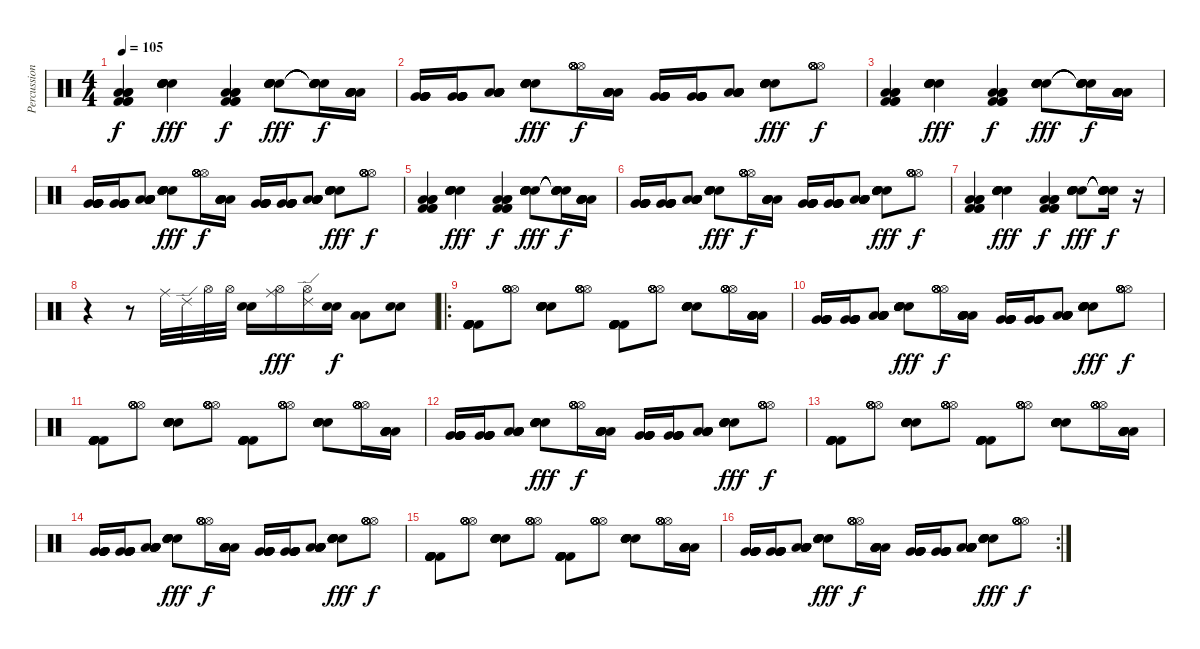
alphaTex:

\track ("Percussion" "Percussion") {instrument percussion}
\staff {score}
\articulation defaults
\ts (4 4)
\tempo 105
\clef neutral
\ks c
("Kick (hit) 2" "Low Floor Tom (hit)" "Kick (hit) 2" "Low Floor Tom (hit)" "Kick (hit) 2" "Low Floor Tom (hit)").4{dy f} ("Snare (hit) 2" "Snare (hit) 2" "Snare (hit) 2" "Snare (hit) 2" "Snare (hit) 2" "Snare (hit) 2").4{dy fff} ("Kick (hit) 2" "Low Floor Tom (hit)" "Kick (hit) 2" "Low Floor Tom (hit)" "Kick (hit) 2" "Low Floor Tom (hit)").4{dy f} ("Snare (hit) 2" "Snare (hit) 2" "Snare (hit) 2" "Snare (hit) 2" "Snare (hit) 2" "Snare (hit) 2").8{dy fff} ("Snare (hit)"{t} "Snare (hit)"{t} "Snare (hit)"{t} "Snare (hit)"{t} "Snare (hit)"{t} "Snare (hit)"{t}).16{dy f} ("Low Tom (hit)" "Low Tom (hit)" "Low Tom (hit)" "Low Tom (hit)" "Low Tom (hit)" "Low Tom (hit)").16 |
("Very Low Tom (hit)" "Very Low Tom (hit)" "Very Low Tom (hit)" "Very Low Tom (hit)" "Very Low Tom (hit)" "Very Low Tom (hit)").16 ("Very Low Tom (hit)" "Very Low Tom (hit)" "Very Low Tom (hit)" "Very Low Tom (hit)" "Very Low Tom (hit)" "Very Low Tom (hit)").16 ("Low Floor Tom (hit)" "Low Floor Tom (hit)" "Low Floor Tom (hit)" "Low Floor Tom (hit)" "Low Floor Tom (hit)" "Low Floor Tom (hit)").8 ("Snare (hit) 2" "Snare (hit) 2" "Snare (hit) 2" "Snare (hit) 2" "Snare (hit) 2" "Snare (hit) 2").8{dy fff} ("Hi-Hat (open)" "Hi-Hat (open)" "Hi-Hat (open)" "Hi-Hat (open)" "Hi-Hat (open)" "Hi-Hat (open)").16{dy f} ("Low Tom (hit)" "Low Tom (hit)" "Low Tom (hit)" "Low Tom (hit)" "Low Tom (hit)" "Low Tom (hit)").16 ("Very Low Tom (hit)" "Very Low Tom (hit)" "Very Low Tom (hit)" "Very Low Tom (hit)" "Very Low Tom (hit)" "Very Low Tom (hit)").16 ("Very Low Tom (hit)" "Very Low Tom (hit)" "Very Low Tom (hit)" "Very Low Tom (hit)" "Very Low Tom (hit)" "Very Low Tom (hit)").16 ("Low Floor Tom (hit)" "Low Floor Tom (hit)" "Low Floor Tom (hit)" "Low Floor Tom (hit)" "Low Floor Tom (hit)" "Low Floor Tom (hit)").8 ("Snare (hit) 2" "Snare (hit) 2" "Snare (hit) 2" "Snare (hit) 2" "Snare (hit) 2" "Snare (hit) 2").8{dy fff} ("Hi-Hat (open)" "Hi-Hat (open)" "Hi-Hat (open)" "Hi-Hat (open)" "Hi-Hat (open)" "Hi-Hat (open)").8{dy f} |
("Kick (hit) 2" "Low Floor Tom (hit)" "Kick (hit) 2" "Low Floor Tom (hit)" "Kick (hit) 2" "Low Floor Tom (hit)").4 ("Snare (hit) 2" "Snare (hit) 2" "Snare (hit) 2" "Snare (hit) 2" "Snare (hit) 2" "Snare (hit) 2").4{dy fff} ("Kick (hit) 2" "Low Floor Tom (hit)" "Kick (hit) 2" "Low Floor Tom (hit)" "Kick (hit) 2" "Low Floor Tom (hit)").4{dy f} ("Snare (hit) 2" "Snare (hit) 2" "Snare (hit) 2" "Snare (hit) 2" "Snare (hit) 2" "Snare (hit) 2").8{dy fff} ("Snare (hit)"{t} "Snare (hit)"{t} "Snare (hit)"{t} "Snare (hit)"{t} "Snare (hit)"{t} "Snare (hit)"{t}).16{dy f} ("Low Tom (hit)" "Low Tom (hit)" "Low Tom (hit)" "Low Tom (hit)" "Low Tom (hit)" "Low Tom (hit)").16 |
("Very Low Tom (hit)" "Very Low Tom (hit)" "Very Low Tom (hit)" "Very Low Tom (hit)" "Very Low Tom (hit)" "Very Low Tom (hit)").16 ("Very Low Tom (hit)" "Very Low Tom (hit)" "Very Low Tom (hit)" "Very Low Tom (hit)" "Very Low Tom (hit)" "Very Low Tom (hit)").16 ("Low Floor Tom (hit)" "Low Floor Tom (hit)" "Low Floor Tom (hit)" "Low Floor Tom (hit)" "Low Floor Tom (hit)" "Low Floor Tom (hit)").8 ("Snare (hit) 2" "Snare (hit) 2" "Snare (hit) 2" "Snare (hit) 2" "Snare (hit) 2" "Snare (hit) 2").8{dy fff} ("Hi-Hat (open)" "Hi-Hat (open)" "Hi-Hat (open)" "Hi-Hat (open)" "Hi-Hat (open)" "Hi-Hat (open)").16{dy f} ("Low Tom (hit)" "Low Tom (hit)" "Low Tom (hit)" "Low Tom (hit)" "Low Tom (hit)" "Low Tom (hit)").16 ("Very Low Tom (hit)" "Very Low Tom (hit)" "Very Low Tom (hit)" "Very Low Tom (hit)" "Very Low Tom (hit)" "Very Low Tom (hit)").16 ("Very Low Tom (hit)" "Very Low Tom (hit)" "Very Low Tom (hit)" "Very Low Tom (hit)" "Very Low Tom (hit)" "Very Low Tom (hit)").16 ("Low Floor Tom (hit)" "Low Floor Tom (hit)" "Low Floor Tom (hit)" "Low Floor Tom (hit)" "Low Floor Tom (hit)" "Low Floor Tom (hit)").8 ("Snare (hit) 2" "Snare (hit) 2" "Snare (hit) 2" "Snare (hit) 2" "Snare (hit) 2" "Snare (hit) 2").8{dy fff} ("Hi-Hat (open)" "Hi-Hat (open)" "Hi-Hat (open)" "Hi-Hat (open)" "Hi-Hat (open)" "Hi-Hat (open)").8{dy f} |
("Kick (hit) 2" "Low Floor Tom (hit)" "Kick (hit) 2" "Low Floor Tom (hit)" "Kick (hit) 2" "Low Floor Tom (hit)").4 ("Snare (hit) 2" "Snare (hit) 2" "Snare (hit) 2" "Snare (hit) 2" "Snare (hit) 2" "Snare (hit) 2").4{dy fff} ("Kick (hit) 2" "Low Floor Tom (hit)" "Kick (hit) 2" "Low Floor Tom (hit)" "Kick (hit) 2" "Low Floor Tom (hit)").4{dy f} ("Snare (hit) 2" "Snare (hit) 2" "Snare (hit) 2" "Snare (hit) 2" "Snare (hit) 2" "Snare (hit) 2").8{dy fff} ("Snare (hit)"{t} "Snare (hit)"{t} "Snare (hit)"{t} "Snare (hit)"{t} "Snare (hit)"{t} "Snare (hit)"{t}).16{dy f} ("Low Tom (hit)" "Low Tom (hit)" "Low Tom (hit)" "Low Tom (hit)" "Low Tom (hit)" "Low Tom (hit)").16 |
("Very Low Tom (hit)" "Very Low Tom (hit)" "Very Low Tom (hit)" "Very Low Tom (hit)" "Very Low Tom (hit)" "Very Low Tom (hit)").16 ("Very Low Tom (hit)" "Very Low Tom (hit)" "Very Low Tom (hit)" "Very Low Tom (hit)" "Very Low Tom (hit)" "Very Low Tom (hit)").16 ("Low Floor Tom (hit)" "Low Floor Tom (hit)" "Low Floor Tom (hit)" "Low Floor Tom (hit)" "Low Floor Tom (hit)" "Low Floor Tom (hit)").8 ("Snare (hit) 2" "Snare (hit) 2" "Snare (hit) 2" "Snare (hit) 2" "Snare (hit) 2" "Snare (hit) 2").8{dy fff} ("Hi-Hat (open)" "Hi-Hat (open)" "Hi-Hat (open)" "Hi-Hat (open)" "Hi-Hat (open)" "Hi-Hat (open)").16{dy f} ("Low Tom (hit)" "Low Tom (hit)" "Low Tom (hit)" "Low Tom (hit)" "Low Tom (hit)" "Low Tom (hit)").16 ("Very Low Tom (hit)" "Very Low Tom (hit)" "Very Low Tom (hit)" "Very Low Tom (hit)" "Very Low Tom (hit)" "Very Low Tom (hit)").16 ("Very Low Tom (hit)" "Very Low Tom (hit)" "Very Low Tom (hit)" "Very Low Tom (hit)" "Very Low Tom (hit)" "Very Low Tom (hit)").16 ("Low Floor Tom (hit)" "Low Floor Tom (hit)" "Low Floor Tom (hit)" "Low Floor Tom (hit)" "Low Floor Tom (hit)" "Low Floor Tom (hit)").8 ("Snare (hit) 2" "Snare (hit) 2" "Snare (hit) 2" "Snare (hit) 2" "Snare (hit) 2" "Snare (hit) 2").8{dy fff} ("Hi-Hat (open)" "Hi-Hat (open)" "Hi-Hat (open)" "Hi-Hat (open)" "Hi-Hat (open)" "Hi-Hat (open)").8{dy f} |
("Kick (hit) 2" "Low Floor Tom (hit)" "Kick (hit) 2" "Low Floor Tom (hit)" "Kick (hit) 2" "Low Floor Tom (hit)").4 ("Snare (hit) 2" "Snare (hit) 2" "Snare (hit) 2" "Snare (hit) 2" "Snare (hit) 2" "Snare (hit) 2").4{dy fff} ("Kick (hit) 2" "Low Floor Tom (hit)" "Kick (hit) 2" "Low Floor Tom (hit)" "Kick (hit) 2" "Low Floor Tom (hit)").4{dy f} ("Snare (hit) 2" "Snare (hit) 2" "Snare (hit) 2" "Snare (hit) 2" "Snare (hit) 2" "Snare (hit) 2").8{dy fff} ("Snare (hit)"{t} "Snare (hit)"{t} "Snare (hit)"{t} "Snare (hit)"{t} "Snare (hit)"{t} "Snare (hit)"{t}).16{dy f} r.16 |
r.4 r.8 "Ride (middle)".32 "Ride (edge) 2".32 "Hi-Hat (open)".32 "Hi-Hat (open)".32 ("Electric Snare (hit)" "Electric Snare (hit)").16 ("Ride (middle)" "Hi-Hat (open)").16{dy fff} ("Ride (edge) 2" "Hi-Hat (open)").16 ("Electric Snare (hit)" "Electric Snare (hit)").16{dy f} ("Low Tom (hit)" "Low Tom (hit)").8 ("Electric Snare (hit)" "Electric Snare (hit)").8 |
\ro
("Kick (hit) 2" "Kick (hit) 2" "Kick (hit) 2" "Kick (hit) 2" "Kick (hit) 2" "Kick (hit) 2").8 ("Hi-Hat (open)" "Hi-Hat (open)" "Hi-Hat (open)" "Hi-Hat (open)" "Hi-Hat (open)" "Hi-Hat (open)").8 ("Snare (hit) 2" "Snare (hit) 2" "Snare (hit) 2" "Snare (hit) 2" "Snare (hit) 2" "Snare (hit) 2").8 ("Hi-Hat (open)" "Hi-Hat (open)" "Hi-Hat (open)" "Hi-Hat (open)" "Hi-Hat (open)" "Hi-Hat (open)").8 ("Kick (hit) 2" "Kick (hit) 2" "Kick (hit) 2" "Kick (hit) 2" "Kick (hit) 2" "Kick (hit) 2").8 ("Hi-Hat (open)" "Hi-Hat (open)" "Hi-Hat (open)" "Hi-Hat (open)" "Hi-Hat (open)" "Hi-Hat (open)").8 ("Snare (hit) 2" "Snare (hit) 2" "Snare (hit) 2" "Snare (hit) 2" "Snare (hit) 2" "Snare (hit) 2").8 ("Hi-Hat (open)" "Hi-Hat (open)" "Hi-Hat (open)" "Hi-Hat (open)" "Hi-Hat (open)" "Hi-Hat (open)").16 ("Low Tom (hit)" "Low Tom (hit)" "Low Tom (hit)" "Low Tom (hit)" "Low Tom (hit)" "Low Tom (hit)").16 |
("Very Low Tom (hit)" "Very Low Tom (hit)" "Very Low Tom (hit)" "Very Low Tom (hit)" "Very Low Tom (hit)" "Very Low Tom (hit)").16 ("Very Low Tom (hit)" "Very Low Tom (hit)" "Very Low Tom (hit)" "Very Low Tom (hit)" "Very Low Tom (hit)" "Very Low Tom (hit)").16 ("Low Floor Tom (hit)" "Low Floor Tom (hit)" "Low Floor Tom (hit)" "Low Floor Tom (hit)" "Low Floor Tom (hit)" "Low Floor Tom (hit)").8 ("Snare (hit) 2" "Snare (hit) 2" "Snare (hit) 2" "Snare (hit) 2" "Snare (hit) 2" "Snare (hit) 2").8{dy fff} ("Hi-Hat (open)" "Hi-Hat (open)" "Hi-Hat (open)" "Hi-Hat (open)" "Hi-Hat (open)" "Hi-Hat (open)").16{dy f} ("Low Tom (hit)" "Low Tom (hit)" "Low Tom (hit)" "Low Tom (hit)" "Low Tom (hit)" "Low Tom (hit)").16 ("Very Low Tom (hit)" "Very Low Tom (hit)" "Very Low Tom (hit)" "Very Low Tom (hit)" "Very Low Tom (hit)" "Very Low Tom (hit)").16 ("Very Low Tom (hit)" "Very Low Tom (hit)" "Very Low Tom (hit)" "Very Low Tom (hit)" "Very Low Tom (hit)" "Very Low Tom (hit)").16 ("Low Floor Tom (hit)" "Low Floor Tom (hit)" "Low Floor Tom (hit)" "Low Floor Tom (hit)" "Low Floor Tom (hit)" "Low Floor Tom (hit)").8 ("Snare (hit) 2" "Snare (hit) 2" "Snare (hit) 2" "Snare (hit) 2" "Snare (hit) 2" "Snare (hit) 2").8{dy fff} ("Hi-Hat (open)" "Hi-Hat (open)" "Hi-Hat (open)" "Hi-Hat (open)" "Hi-Hat (open)" "Hi-Hat (open)").8{dy f} |
("Kick (hit) 2" "Kick (hit) 2" "Kick (hit) 2" "Kick (hit) 2" "Kick (hit) 2" "Kick (hit) 2").8 ("Hi-Hat (open)" "Hi-Hat (open)" "Hi-Hat (open)" "Hi-Hat (open)" "Hi-Hat (open)" "Hi-Hat (open)").8 ("Snare (hit) 2" "Snare (hit) 2" "Snare (hit) 2" "Snare (hit) 2" "Snare (hit) 2" "Snare (hit) 2").8 ("Hi-Hat (open)" "Hi-Hat (open)" "Hi-Hat (open)" "Hi-Hat (open)" "Hi-Hat (open)" "Hi-Hat (open)").8 ("Kick (hit) 2" "Kick (hit) 2" "Kick (hit) 2" "Kick (hit) 2" "Kick (hit) 2" "Kick (hit) 2").8 ("Hi-Hat (open)" "Hi-Hat (open)" "Hi-Hat (open)" "Hi-Hat (open)" "Hi-Hat (open)" "Hi-Hat (open)").8 ("Snare (hit) 2" "Snare (hit) 2" "Snare (hit) 2" "Snare (hit) 2" "Snare (hit) 2" "Snare (hit) 2").8 ("Hi-Hat (open)" "Hi-Hat (open)" "Hi-Hat (open)" "Hi-Hat (open)" "Hi-Hat (open)" "Hi-Hat (open)").16 ("Low Tom (hit)" "Low Tom (hit)" "Low Tom (hit)" "Low Tom (hit)" "Low Tom (hit)" "Low Tom (hit)").16 |
("Very Low Tom (hit)" "Very Low Tom (hit)" "Very Low Tom (hit)" "Very Low Tom (hit)" "Very Low Tom (hit)" "Very Low Tom (hit)").16 ("Very Low Tom (hit)" "Very Low Tom (hit)" "Very Low Tom (hit)" "Very Low Tom (hit)" "Very Low Tom (hit)" "Very Low Tom (hit)").16 ("Low Floor Tom (hit)" "Low Floor Tom (hit)" "Low Floor Tom (hit)" "Low Floor Tom (hit)" "Low Floor Tom (hit)" "Low Floor Tom (hit)").8 ("Snare (hit) 2" "Snare (hit) 2" "Snare (hit) 2" "Snare (hit) 2" "Snare (hit) 2" "Snare (hit) 2").8{dy fff} ("Hi-Hat (open)" "Hi-Hat (open)" "Hi-Hat (open)" "Hi-Hat (open)" "Hi-Hat (open)" "Hi-Hat (open)").16{dy f} ("Low Tom (hit)" "Low Tom (hit)" "Low Tom (hit)" "Low Tom (hit)" "Low Tom (hit)" "Low Tom (hit)").16 ("Very Low Tom (hit)" "Very Low Tom (hit)" "Very Low Tom (hit)" "Very Low Tom (hit)" "Very Low Tom (hit)" "Very Low Tom (hit)").16 ("Very Low Tom (hit)" "Very Low Tom (hit)" "Very Low Tom (hit)" "Very Low Tom (hit)" "Very Low Tom (hit)" "Very Low Tom (hit)").16 ("Low Floor Tom (hit)" "Low Floor Tom (hit)" "Low Floor Tom (hit)" "Low Floor Tom (hit)" "Low Floor Tom (hit)" "Low Floor Tom (hit)").8 ("Snare (hit) 2" "Snare (hit) 2" "Snare (hit) 2" "Snare (hit) 2" "Snare (hit) 2" "Snare (hit) 2").8{dy fff} ("Hi-Hat (open)" "Hi-Hat (open)" "Hi-Hat (open)" "Hi-Hat (open)" "Hi-Hat (open)" "Hi-Hat (open)").8{dy f} |
("Kick (hit) 2" "Kick (hit) 2" "Kick (hit) 2" "Kick (hit) 2" "Kick (hit) 2" "Kick (hit) 2").8 ("Hi-Hat (open)" "Hi-Hat (open)" "Hi-Hat (open)" "Hi-Hat (open)" "Hi-Hat (open)" "Hi-Hat (open)").8 ("Snare (hit) 2" "Snare (hit) 2" "Snare (hit) 2" "Snare (hit) 2" "Snare (hit) 2" "Snare (hit) 2").8 ("Hi-Hat (open)" "Hi-Hat (open)" "Hi-Hat (open)" "Hi-Hat (open)" "Hi-Hat (open)" "Hi-Hat (open)").8 ("Kick (hit) 2" "Kick (hit) 2" "Kick (hit) 2" "Kick (hit) 2" "Kick (hit) 2" "Kick (hit) 2").8 ("Hi-Hat (open)" "Hi-Hat (open)" "Hi-Hat (open)" "Hi-Hat (open)" "Hi-Hat (open)" "Hi-Hat (open)").8 ("Snare (hit) 2" "Snare (hit) 2" "Snare (hit) 2" "Snare (hit) 2" "Snare (hit) 2" "Snare (hit) 2").8 ("Hi-Hat (open)" "Hi-Hat (open)" "Hi-Hat (open)" "Hi-Hat (open)" "Hi-Hat (open)" "Hi-Hat (open)").16 ("Low Tom (hit)" "Low Tom (hit)" "Low Tom (hit)" "Low Tom (hit)" "Low Tom (hit)" "Low Tom (hit)").16 |
("Very Low Tom (hit)" "Very Low Tom (hit)" "Very Low Tom (hit)" "Very Low Tom (hit)" "Very Low Tom (hit)" "Very Low Tom (hit)").16 ("Very Low Tom (hit)" "Very Low Tom (hit)" "Very Low Tom (hit)" "Very Low Tom (hit)" "Very Low Tom (hit)" "Very Low Tom (hit)").16 ("Low Floor Tom (hit)" "Low Floor Tom (hit)" "Low Floor Tom (hit)" "Low Floor Tom (hit)" "Low Floor Tom (hit)" "Low Floor Tom (hit)").8 ("Snare (hit) 2" "Snare (hit) 2" "Snare (hit) 2" "Snare (hit) 2" "Snare (hit) 2" "Snare (hit) 2").8{dy fff} ("Hi-Hat (open)" "Hi-Hat (open)" "Hi-Hat (open)" "Hi-Hat (open)" "Hi-Hat (open)" "Hi-Hat (open)").16{dy f} ("Low Tom (hit)" "Low Tom (hit)" "Low Tom (hit)" "Low Tom (hit)" "Low Tom (hit)" "Low Tom (hit)").16 ("Very Low Tom (hit)" "Very Low Tom (hit)" "Very Low Tom (hit)" "Very Low Tom (hit)" "Very Low Tom (hit)" "Very Low Tom (hit)").16 ("Very Low Tom (hit)" "Very Low Tom (hit)" "Very Low Tom (hit)" "Very Low Tom (hit)" "Very Low Tom (hit)" "Very Low Tom (hit)").16 ("Low Floor Tom (hit)" "Low Floor Tom (hit)" "Low Floor Tom (hit)" "Low Floor Tom (hit)" "Low Floor Tom (hit)" "Low Floor Tom (hit)").8 ("Snare (hit) 2" "Snare (hit) 2" "Snare (hit) 2" "Snare (hit) 2" "Snare (hit) 2" "Snare (hit) 2").8{dy fff} ("Hi-Hat (open)" "Hi-Hat (open)" "Hi-Hat (open)" "Hi-Hat (open)" "Hi-Hat (open)" "Hi-Hat (open)").8{dy f} |
("Kick (hit) 2" "Kick (hit) 2" "Kick (hit) 2" "Kick (hit) 2" "Kick (hit) 2" "Kick (hit) 2").8 ("Hi-Hat (open)" "Hi-Hat (open)" "Hi-Hat (open)" "Hi-Hat (open)" "Hi-Hat (open)" "Hi-Hat (open)").8 ("Snare (hit) 2" "Snare (hit) 2" "Snare (hit) 2" "Snare (hit) 2" "Snare (hit) 2" "Snare (hit) 2").8 ("Hi-Hat (open)" "Hi-Hat (open)" "Hi-Hat (open)" "Hi-Hat (open)" "Hi-Hat (open)" "Hi-Hat (open)").8 ("Kick (hit) 2" "Kick (hit) 2" "Kick (hit) 2" "Kick (hit) 2" "Kick (hit) 2" "Kick (hit) 2").8 ("Hi-Hat (open)" "Hi-Hat (open)" "Hi-Hat (open)" "Hi-Hat (open)" "Hi-Hat (open)" "Hi-Hat (open)").8 ("Snare (hit) 2" "Snare (hit) 2" "Snare (hit) 2" "Snare (hit) 2" "Snare (hit) 2" "Snare (hit) 2").8 ("Hi-Hat (open)" "Hi-Hat (open)" "Hi-Hat (open)" "Hi-Hat (open)" "Hi-Hat (open)" "Hi-Hat (open)").16 ("Low Tom (hit)" "Low Tom (hit)" "Low Tom (hit)" "Low Tom (hit)" "Low Tom (hit)" "Low Tom (hit)").16 |
\rc 2
("Very Low Tom (hit)" "Very Low Tom (hit)" "Very Low Tom (hit)" "Very Low Tom (hit)" "Very Low Tom (hit)" "Very Low Tom (hit)").16 ("Very Low Tom (hit)" "Very Low Tom (hit)" "Very Low Tom (hit)" "Very Low Tom (hit)" "Very Low Tom (hit)" "Very Low Tom (hit)").16 ("Low Floor Tom (hit)" "Low Floor Tom (hit)" "Low Floor Tom (hit)" "Low Floor Tom (hit)" "Low Floor Tom (hit)" "Low Floor Tom (hit)").8 ("Snare (hit) 2" "Snare (hit) 2" "Snare (hit) 2" "Snare (hit) 2" "Snare (hit) 2" "Snare (hit) 2").8{dy fff} ("Hi-Hat (open)" "Hi-Hat (open)" "Hi-Hat (open)" "Hi-Hat (open)" "Hi-Hat (open)" "Hi-Hat (open)").16{dy f} ("Low Tom (hit)" "Low Tom (hit)" "Low Tom (hit)" "Low Tom (hit)" "Low Tom (hit)" "Low Tom (hit)").16 ("Very Low Tom (hit)" "Very Low Tom (hit)" "Very Low Tom (hit)" "Very Low Tom (hit)" "Very Low Tom (hit)" "Very Low Tom (hit)").16 ("Very Low Tom (hit)" "Very Low Tom (hit)" "Very Low Tom (hit)" "Very Low Tom (hit)" "Very Low Tom (hit)" "Very Low Tom (hit)").16 ("Low Floor Tom (hit)" "Low Floor Tom (hit)" "Low Floor Tom (hit)" "Low Floor Tom (hit)" "Low Floor Tom (hit)" "Low Floor Tom (hit)").8 ("Snare (hit) 2" "Snare (hit) 2" "Snare (hit) 2" "Snare (hit) 2" "Snare (hit) 2" "Snare (hit) 2").8{dy fff} ("Hi-Hat (open)" "Hi-Hat (open)" "Hi-Hat (open)" "Hi-Hat (open)" "Hi-Hat (open)" "Hi-Hat (open)").8{dy f}
